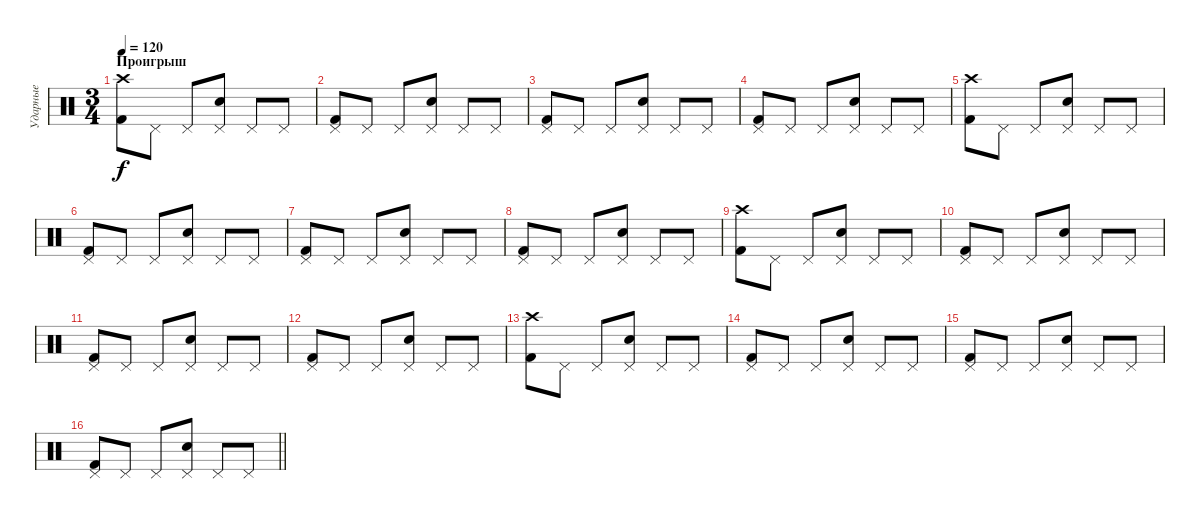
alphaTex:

\track ("Ударные" "Ударные") {instrument percussion}
\staff {score}
\articulation defaults
\ts (3 4)
\section ("" "Проигрыш")
\tempo 120
\clef neutral
\ks c
("Crash high (hit)" "Kick (hit) 2").8{dy f} "Pedal Hi-Hat (hit)".8 "Pedal Hi-Hat (hit)".8 ("Pedal Hi-Hat (hit)" "Snare (hit) 2").8 "Pedal Hi-Hat (hit)".8 "Pedal Hi-Hat (hit)".8 |
("Pedal Hi-Hat (hit)" "Kick (hit) 2").8 "Pedal Hi-Hat (hit)".8 "Pedal Hi-Hat (hit)".8 ("Pedal Hi-Hat (hit)" "Snare (hit) 2").8 "Pedal Hi-Hat (hit)".8 "Pedal Hi-Hat (hit)".8 |
("Pedal Hi-Hat (hit)" "Kick (hit) 2").8 "Pedal Hi-Hat (hit)".8 "Pedal Hi-Hat (hit)".8 ("Pedal Hi-Hat (hit)" "Snare (hit) 2").8 "Pedal Hi-Hat (hit)".8 "Pedal Hi-Hat (hit)".8 |
("Pedal Hi-Hat (hit)" "Kick (hit) 2").8 "Pedal Hi-Hat (hit)".8 "Pedal Hi-Hat (hit)".8 ("Pedal Hi-Hat (hit)" "Snare (hit) 2").8 "Pedal Hi-Hat (hit)".8 "Pedal Hi-Hat (hit)".8 |
("Crash high (hit)" "Kick (hit) 2").8 "Pedal Hi-Hat (hit)".8 "Pedal Hi-Hat (hit)".8 ("Pedal Hi-Hat (hit)" "Snare (hit) 2").8 "Pedal Hi-Hat (hit)".8 "Pedal Hi-Hat (hit)".8 |
("Pedal Hi-Hat (hit)" "Kick (hit) 2").8 "Pedal Hi-Hat (hit)".8 "Pedal Hi-Hat (hit)".8 ("Pedal Hi-Hat (hit)" "Snare (hit) 2").8 "Pedal Hi-Hat (hit)".8 "Pedal Hi-Hat (hit)".8 |
("Pedal Hi-Hat (hit)" "Kick (hit) 2").8 "Pedal Hi-Hat (hit)".8 "Pedal Hi-Hat (hit)".8 ("Pedal Hi-Hat (hit)" "Snare (hit) 2").8 "Pedal Hi-Hat (hit)".8 "Pedal Hi-Hat (hit)".8 |
("Pedal Hi-Hat (hit)" "Kick (hit) 2").8 "Pedal Hi-Hat (hit)".8 "Pedal Hi-Hat (hit)".8 ("Pedal Hi-Hat (hit)" "Snare (hit) 2").8 "Pedal Hi-Hat (hit)".8 "Pedal Hi-Hat (hit)".8 |
("Crash high (hit)" "Kick (hit) 2").8 "Pedal Hi-Hat (hit)".8 "Pedal Hi-Hat (hit)".8 ("Pedal Hi-Hat (hit)" "Snare (hit) 2").8 "Pedal Hi-Hat (hit)".8 "Pedal Hi-Hat (hit)".8 |
("Pedal Hi-Hat (hit)" "Kick (hit) 2").8 "Pedal Hi-Hat (hit)".8 "Pedal Hi-Hat (hit)".8 ("Pedal Hi-Hat (hit)" "Snare (hit) 2").8 "Pedal Hi-Hat (hit)".8 "Pedal Hi-Hat (hit)".8 |
("Pedal Hi-Hat (hit)" "Kick (hit) 2").8 "Pedal Hi-Hat (hit)".8 "Pedal Hi-Hat (hit)".8 ("Pedal Hi-Hat (hit)" "Snare (hit) 2").8 "Pedal Hi-Hat (hit)".8 "Pedal Hi-Hat (hit)".8 |
("Pedal Hi-Hat (hit)" "Kick (hit) 2").8 "Pedal Hi-Hat (hit)".8 "Pedal Hi-Hat (hit)".8 ("Pedal Hi-Hat (hit)" "Snare (hit) 2").8 "Pedal Hi-Hat (hit)".8 "Pedal Hi-Hat (hit)".8 |
("Crash high (hit)" "Kick (hit) 2").8 "Pedal Hi-Hat (hit)".8 "Pedal Hi-Hat (hit)".8 ("Pedal Hi-Hat (hit)" "Snare (hit) 2").8 "Pedal Hi-Hat (hit)".8 "Pedal Hi-Hat (hit)".8 |
("Pedal Hi-Hat (hit)" "Kick (hit) 2").8 "Pedal Hi-Hat (hit)".8 "Pedal Hi-Hat (hit)".8 ("Pedal Hi-Hat (hit)" "Snare (hit) 2").8 "Pedal Hi-Hat (hit)".8 "Pedal Hi-Hat (hit)".8 |
("Pedal Hi-Hat (hit)" "Kick (hit) 2").8 "Pedal Hi-Hat (hit)".8 "Pedal Hi-Hat (hit)".8 ("Pedal Hi-Hat (hit)" "Snare (hit) 2").8 "Pedal Hi-Hat (hit)".8 "Pedal Hi-Hat (hit)".8 |
\barLineRight lightlight
("Pedal Hi-Hat (hit)" "Kick (hit) 2").8 "Pedal Hi-Hat (hit)".8 "Pedal Hi-Hat (hit)".8 ("Pedal Hi-Hat (hit)" "Snare (hit) 2").8 "Pedal Hi-Hat (hit)".8 "Pedal Hi-Hat (hit)".8
